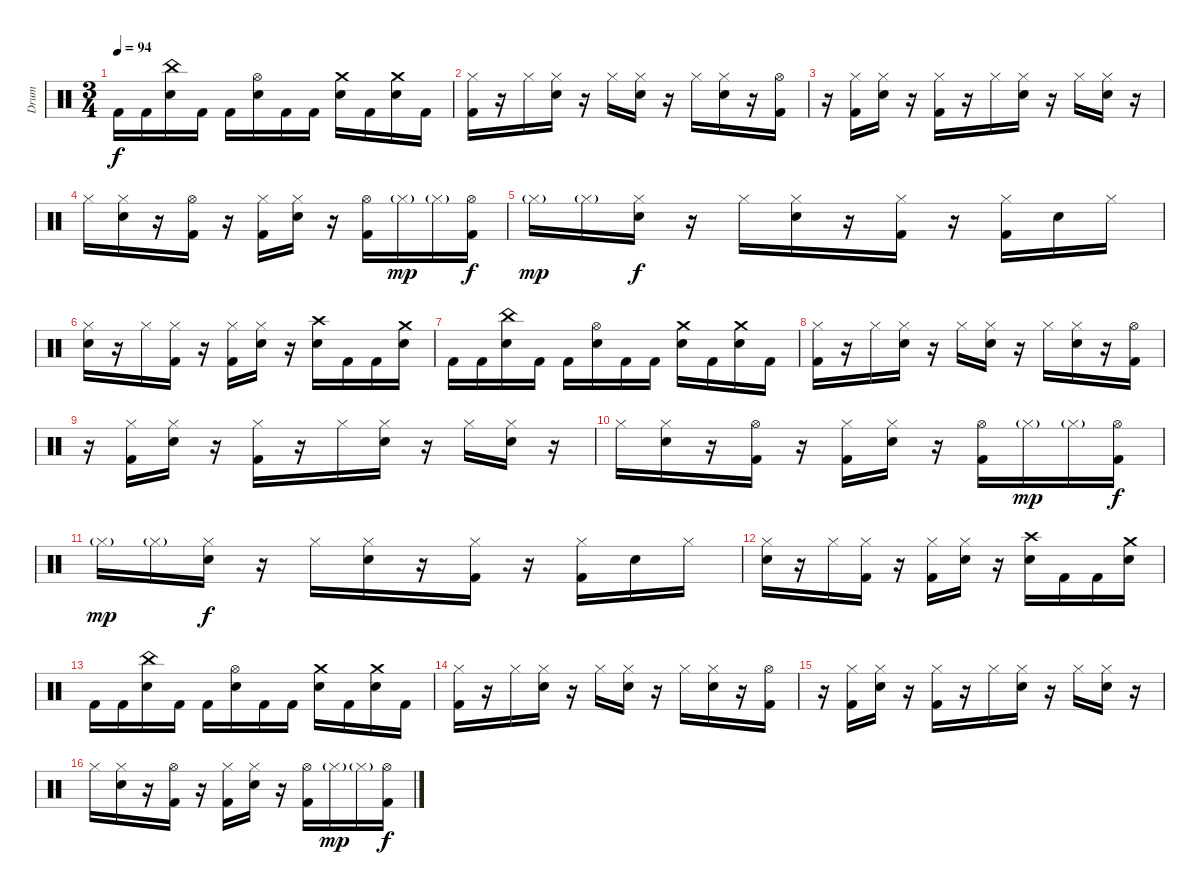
\track ("Drum" "Drum") {instrument percussion}
\staff {score}
\articulation defaults
\ts (3 4)
\tempo 94
\clef neutral
\ks c "Kick (hit) 2".16{dy f} "Kick (hit) 2".16
("China (hit)" "Electric Snare (hit)").16 "Kick (hit) 2".16 "Kick (hit) 2".16 ("Hi-Hat (open)" "Electric Snare (hit)").16 "Kick (hit) 2".16 "Kick (hit) 2".16 ("Crash medium (hit)" "Electric Snare (hit)").16 "Kick (hit) 2".16 ("Crash medium (hit)" "Electric Snare (hit)").16 "Kick (hit) 2".16 |
("Hi-Hat (closed)" "Kick (hit) 2").16 r.16 "Hi-Hat (closed)".16 ("Hi-Hat (closed)" "Electric Snare (hit)").16 r.16 "Hi-Hat (closed)".16 ("Hi-Hat (closed)" "Electric Snare (hit)").16 r.16 "Hi-Hat (closed)".16 ("Hi-Hat (closed)" "Electric Snare (hit)").16 r.16 ("Hi-Hat (open)" "Kick (hit) 2").16 |
r.16 ("Hi-Hat (closed)" "Kick (hit) 2").16 ("Hi-Hat (closed)" "Electric Snare (hit)").16 r.16 ("Hi-Hat (closed)" "Kick (hit) 2").16 r.16 "Hi-Hat (closed)".16 ("Hi-Hat (closed)" "Electric Snare (hit)").16 r.16 "Hi-Hat (closed)".16 ("Hi-Hat (closed)" "Electric Snare (hit)").16 r.16 |
"Hi-Hat (closed)".16 ("Hi-Hat (closed)" "Electric Snare (hit)").16 r.16 ("Hi-Hat (open)" "Kick (hit) 2").16 r.16 ("Hi-Hat (closed)" "Kick (hit) 2").16 ("Hi-Hat (closed)" "Electric Snare (hit)").16 r.16 ("Hi-Hat (open)" "Kick (hit) 2").16 "Hi-Hat (closed)"{g}.16{dy mp} "Hi-Hat (closed)"{g}.16 ("Hi-Hat (open)" "Kick (hit) 2").16{dy f} |
"Hi-Hat (closed)"{g}.16{dy mp} "Hi-Hat (closed)"{g}.16 ("Hi-Hat (closed)" "Electric Snare (hit)").16{dy f} r.16 "Hi-Hat (closed)".16 ("Hi-Hat (closed)" "Electric Snare (hit)").16 r.16 ("Hi-Hat (closed)" "Kick (hit) 2").16 r.16 ("Hi-Hat (closed)" "Kick (hit) 2").16 "Electric Snare (hit)".16 "Hi-Hat (closed)".16 |
("Hi-Hat (closed)" "Electric Snare (hit)").16 r.16 "Hi-Hat (closed)".16 ("Hi-Hat (closed)" "Kick (hit) 2").16 r.16 ("Hi-Hat (closed)" "Kick (hit) 2").16 ("Hi-Hat (closed)" "Electric Snare (hit)").16 r.16 ("Crash high (hit)" "Electric Snare (hit)").16 "Kick (hit) 2".16 "Kick (hit) 2".16 ("Crash medium (hit)" "Electric Snare (hit)").16 |
"Kick (hit) 2".16 "Kick (hit) 2".16 ("China (hit)" "Electric Snare (hit)").16 "Kick (hit) 2".16 "Kick (hit) 2".16 ("Hi-Hat (open)" "Electric Snare (hit)").16 "Kick (hit) 2".16 "Kick (hit) 2".16 ("Crash medium (hit)" "Electric Snare (hit)").16 "Kick (hit) 2".16 ("Crash medium (hit)" "Electric Snare (hit)").16 "Kick (hit) 2".16 |
("Hi-Hat (closed)" "Kick (hit) 2").16 r.16 "Hi-Hat (closed)".16 ("Hi-Hat (closed)" "Electric Snare (hit)").16 r.16 "Hi-Hat (closed)".16 ("Hi-Hat (closed)" "Electric Snare (hit)").16 r.16 "Hi-Hat (closed)".16 ("Hi-Hat (closed)" "Electric Snare (hit)").16 r.16 ("Hi-Hat (open)" "Kick (hit) 2").16 |
r.16 ("Hi-Hat (closed)" "Kick (hit) 2").16 ("Hi-Hat (closed)" "Electric Snare (hit)").16 r.16 ("Hi-Hat (closed)" "Kick (hit) 2").16 r.16 "Hi-Hat (closed)".16 ("Hi-Hat (closed)" "Electric Snare (hit)").16 r.16 "Hi-Hat (closed)".16 ("Hi-Hat (closed)" "Electric Snare (hit)").16 r.16 |
"Hi-Hat (closed)".16 ("Hi-Hat (closed)" "Electric Snare (hit)").16 r.16 ("Hi-Hat (open)" "Kick (hit) 2").16 r.16 ("Hi-Hat (closed)" "Kick (hit) 2").16 ("Hi-Hat (closed)" "Electric Snare (hit)").16 r.16 ("Hi-Hat (open)" "Kick (hit) 2").16 "Hi-Hat (closed)"{g}.16{dy mp} "Hi-Hat (closed)"{g}.16 ("Hi-Hat (open)" "Kick (hit) 2").16{dy f} |
"Hi-Hat (closed)"{g}.16{dy mp} "Hi-Hat (closed)"{g}.16 ("Hi-Hat (closed)" "Electric Snare (hit)").16{dy f} r.16 "Hi-Hat (closed)".16 ("Hi-Hat (closed)" "Electric Snare (hit)").16 r.16 ("Hi-Hat (closed)" "Kick (hit) 2").16 r.16 ("Hi-Hat (closed)" "Kick (hit) 2").16 "Electric Snare (hit)".16 "Hi-Hat (closed)".16 |
("Hi-Hat (closed)" "Electric Snare (hit)").16 r.16 "Hi-Hat (closed)".16 ("Hi-Hat (closed)" "Kick (hit) 2").16 r.16 ("Hi-Hat (closed)" "Kick (hit) 2").16 ("Hi-Hat (closed)" "Electric Snare (hit)").16 r.16 ("Crash high (hit)" "Electric Snare (hit)").16 "Kick (hit) 2".16 "Kick (hit) 2".16 ("Crash medium (hit)" "Electric Snare (hit)").16 |
"Kick (hit) 2".16 "Kick (hit) 2".16 ("China (hit)" "Electric Snare (hit)").16 "Kick (hit) 2".16 "Kick (hit) 2".16 ("Hi-Hat (open)" "Electric Snare (hit)").16 "Kick (hit) 2".16 "Kick (hit) 2".16 ("Crash medium (hit)" "Electric Snare (hit)").16 "Kick (hit) 2".16 ("Crash medium (hit)" "Electric Snare (hit)").16 "Kick (hit) 2".16 |
("Hi-Hat (closed)" "Kick (hit) 2").16 r.16 "Hi-Hat (closed)".16 ("Hi-Hat (closed)" "Electric Snare (hit)").16 r.16 "Hi-Hat (closed)".16 ("Hi-Hat (closed)" "Electric Snare (hit)").16 r.16 "Hi-Hat (closed)".16 ("Hi-Hat (closed)" "Electric Snare (hit)").16 r.16 ("Hi-Hat (open)" "Kick (hit) 2").16 |
r.16 ("Hi-Hat (closed)" "Kick (hit) 2").16 ("Hi-Hat (closed)" "Electric Snare (hit)").16 r.16 ("Hi-Hat (closed)" "Kick (hit) 2").16 r.16 "Hi-Hat (closed)".16 ("Hi-Hat (closed)" "Electric Snare (hit)").16 r.16 "Hi-Hat (closed)".16 ("Hi-Hat (closed)" "Electric Snare (hit)").16 r.16 |
"Hi-Hat (closed)".16 ("Hi-Hat (closed)" "Electric Snare (hit)").16 r.16 ("Hi-Hat (open)" "Kick (hit) 2").16 r.16 ("Hi-Hat (closed)" "Kick (hit) 2").16 ("Hi-Hat (closed)" "Electric Snare (hit)").16 r.16 ("Hi-Hat (open)" "Kick (hit) 2").16 "Hi-Hat (closed)"{g}.16{dy mp} "Hi-Hat (closed)"{g}.16 ("Hi-Hat (open)" "Kick (hit) 2").16{dy f}
